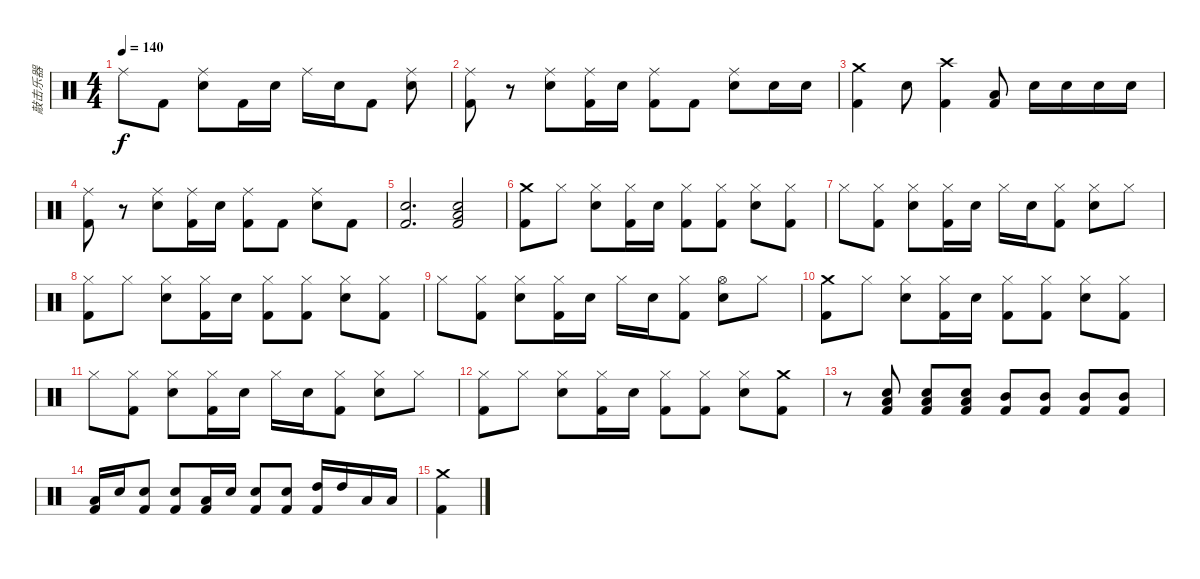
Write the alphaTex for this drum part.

\track ("敲击乐器" "敲击乐器") {instrument percussion}
\staff {score}
\articulation defaults
\ts (4 4)
\tempo 140
\clef neutral
\ks c "Ride (middle)".8{dy f} "Kick (hit) 2".8
("Ride (middle)" "Snare (hit) 2").8 "Kick (hit) 2".16 "Snare (hit) 2".16 "Ride (middle)".16 "Snare (hit) 2".16 "Kick (hit) 2".8 ("Ride (middle)" "Snare (hit) 2").8 |
("Ride (middle)" "Kick (hit) 2").8 r.8 ("Ride (middle)" "Snare (hit) 2").8 ("Ride (middle)" "Kick (hit) 2").16 "Snare (hit) 2".16 ("Ride (middle)" "Kick (hit) 2").8 "Kick (hit) 2".8 ("Ride (middle)" "Snare (hit) 2").8 "Snare (hit) 2".16 "Snare (hit) 2".16 |
("Crash medium (hit)" "Kick (hit) 2").4 "Snare (hit) 2".8 ("Crash high (hit)" "Kick (hit) 2").4 ("Low Tom (hit)" "Kick (hit) 2").8 "Snare (hit) 2".16 "Snare (hit) 2".16 "Snare (hit) 2".16 "Snare (hit) 2".16 |
("Ride (middle)" "Kick (hit) 2").8 r.8 ("Ride (middle)" "Snare (hit) 2").8 ("Ride (middle)" "Kick (hit) 2").16 "Snare (hit) 2".16 ("Ride (middle)" "Kick (hit) 2").8 "Kick (hit) 2".8 ("Ride (middle)" "Snare (hit) 2").8 "Kick (hit) 2".8 |
("Snare (hit) 2" "Kick (hit) 2").2{d} ("Snare (hit) 2" "Low Tom (hit)" "Kick (hit) 2").2 |
("Crash medium (hit)" "Kick (hit) 2").8 "Hi-Hat (closed)".8 ("Hi-Hat (closed)" "Snare (hit) 2").8 ("Hi-Hat (closed)" "Kick (hit) 2").16 "Snare (hit) 2".16 ("Hi-Hat (closed)" "Kick (hit) 2").8 ("Hi-Hat (closed)" "Kick (hit) 2").8 ("Hi-Hat (closed)" "Snare (hit) 2").8 ("Hi-Hat (closed)" "Kick (hit) 2").8 |
"Hi-Hat (closed)".8 ("Hi-Hat (closed)" "Kick (hit) 2").8 ("Hi-Hat (closed)" "Snare (hit) 2").8 ("Hi-Hat (closed)" "Kick (hit) 2").16 "Snare (hit) 2".16 "Hi-Hat (closed)".16 "Snare (hit) 2".16 ("Hi-Hat (closed)" "Kick (hit) 2").8 ("Hi-Hat (closed)" "Snare (hit) 2").8 "Hi-Hat (closed)".8 |
("Hi-Hat (closed)" "Kick (hit) 2").8 "Hi-Hat (closed)".8 ("Hi-Hat (closed)" "Snare (hit) 2").8 ("Hi-Hat (closed)" "Kick (hit) 2").16 "Snare (hit) 2".16 ("Hi-Hat (closed)" "Kick (hit) 2").8 ("Hi-Hat (closed)" "Kick (hit) 2").8 ("Hi-Hat (closed)" "Snare (hit) 2").8 ("Hi-Hat (closed)" "Kick (hit) 2").8 |
"Hi-Hat (closed)".8 ("Hi-Hat (closed)" "Kick (hit) 2").8 ("Hi-Hat (closed)" "Snare (hit) 2").8 ("Hi-Hat (closed)" "Kick (hit) 2").16 "Snare (hit) 2".16 "Hi-Hat (closed)".16 "Snare (hit) 2".16 ("Hi-Hat (closed)" "Kick (hit) 2").8 ("Hi-Hat (open)" "Snare (hit) 2").8 "Hi-Hat (closed)".8 |
("Crash medium (hit)" "Kick (hit) 2").8 "Hi-Hat (closed)".8 ("Hi-Hat (closed)" "Snare (hit) 2").8 ("Hi-Hat (closed)" "Kick (hit) 2").16 "Snare (hit) 2".16 ("Hi-Hat (closed)" "Kick (hit) 2").8 ("Hi-Hat (closed)" "Kick (hit) 2").8 ("Hi-Hat (closed)" "Snare (hit) 2").8 ("Hi-Hat (closed)" "Kick (hit) 2").8 |
"Hi-Hat (closed)".8 ("Hi-Hat (closed)" "Kick (hit) 2").8 ("Hi-Hat (closed)" "Snare (hit) 2").8 ("Hi-Hat (closed)" "Kick (hit) 2").16 "Snare (hit) 2".16 "Hi-Hat (closed)".16 "Snare (hit) 2".16 ("Hi-Hat (closed)" "Kick (hit) 2").8 ("Hi-Hat (closed)" "Snare (hit) 2").8 "Hi-Hat (closed)".8 |
("Hi-Hat (closed)" "Kick (hit) 2").8 "Hi-Hat (closed)".8 ("Hi-Hat (closed)" "Snare (hit) 2").8 ("Hi-Hat (closed)" "Kick (hit) 2").16 "Snare (hit) 2".16 ("Hi-Hat (closed)" "Kick (hit) 2").8 ("Hi-Hat (closed)" "Kick (hit) 2").8 ("Hi-Hat (closed)" "Snare (hit) 2").8 ("Crash medium (hit)" "Kick (hit) 2").8 |
r.8 ("Low Tom (hit)" "Snare (hit) 2" "Kick (hit) 2").8 ("Low Tom (hit)" "Snare (hit) 2" "Kick (hit) 2").8 ("Low Tom (hit)" "Snare (hit) 2" "Kick (hit) 2").8 ("Mid Tom (hit)" "Kick (hit) 2").8 ("Mid Tom (hit)" "Kick (hit) 2").8 ("Mid Tom (hit)" "Kick (hit) 2").8 ("Mid Tom (hit)" "Kick (hit) 2").8 |
("Low Floor Tom (hit)" "Kick (hit) 2").16 "Snare (hit) 2".16 ("Snare (hit) 2" "Kick (hit) 2").8 ("Snare (hit) 2" "Kick (hit) 2").8 ("Low Floor Tom (hit)" "Kick (hit) 2").16 "Snare (hit) 2".16 ("Snare (hit) 2" "Kick (hit) 2").8 ("Snare (hit) 2" "Kick (hit) 2").8 ("High Tom (hit)" "Kick (hit) 2").16 "High Tom (hit)".16 "Low Tom (hit)".16 "Low Tom (hit)".16 |
("Crash medium (hit)" "Kick (hit) 2").4
